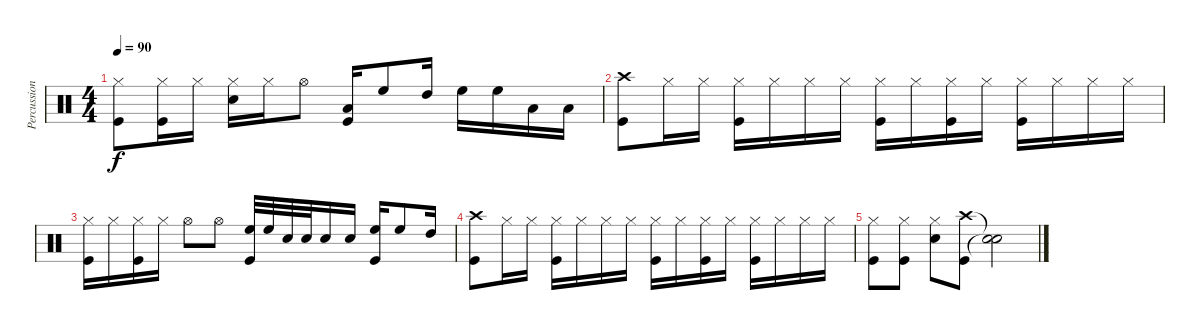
\track ("Percussion" "Percussion") {instrument percussion}
\staff {score}
\articulation defaults
\ts (4 4)
\tempo 90
\clef neutral
\ks c
("Hi-Hat (closed)" "Kick (hit)").8{dy f} ("Hi-Hat (closed)" "Kick (hit)").16 "Hi-Hat (closed)".16 ("Hi-Hat (closed)" "Snare (hit) 2").16 "Hi-Hat (closed)".16 "Hi-Hat (open)".8 ("Low Tom (hit)" "Kick (hit)").16 "High Floor Tom (hit)".8 "High Tom (hit)".16 "High Floor Tom (hit)".16 "High Floor Tom (hit)".16 "Low Tom (hit)".16 "Low Tom (hit)".16 |
("Crash high (hit)" "Kick (hit)").8 "Hi-Hat (closed)".16 "Hi-Hat (closed)".16 ("Hi-Hat (closed)" "Kick (hit)").16 "Hi-Hat (closed)".16 "Hi-Hat (closed)".16 "Hi-Hat (closed)".16 ("Hi-Hat (closed)" "Kick (hit)").16 "Hi-Hat (closed)".16 ("Hi-Hat (closed)" "Kick (hit)").16 "Hi-Hat (closed)".16 ("Hi-Hat (closed)" "Kick (hit)").16 "Hi-Hat (closed)".16 "Hi-Hat (closed)".16 "Hi-Hat (closed)".16 |
("Hi-Hat (closed)" "Kick (hit)").16 "Hi-Hat (closed)".16 ("Hi-Hat (closed)" "Kick (hit)").16 "Hi-Hat (closed)".16 "Hi-Hat (open)".8 "Hi-Hat (open)".8 ("High Floor Tom (hit)" "Kick (hit)").32 "High Floor Tom (hit)".32 "Snare (hit) 2".32 "Snare (hit) 2".32 "Snare (hit) 2".16 "Snare (hit) 2".16 ("High Floor Tom (hit)" "Kick (hit)").16 "High Floor Tom (hit)".8 "High Tom (hit)".16 |
("Crash high (hit)" "Kick (hit)").8 "Hi-Hat (closed)".16 "Hi-Hat (closed)".16 ("Hi-Hat (closed)" "Kick (hit)").16 "Hi-Hat (closed)".16 "Hi-Hat (closed)".16 "Hi-Hat (closed)".16 ("Hi-Hat (closed)" "Kick (hit)").16 "Hi-Hat (closed)".16 ("Hi-Hat (closed)" "Kick (hit)").16 "Hi-Hat (closed)".16 ("Hi-Hat (closed)" "Kick (hit)").16 "Hi-Hat (closed)".16 "Hi-Hat (closed)".16 "Hi-Hat (closed)".16 |
("Hi-Hat (closed)" "Kick (hit)").8 ("Hi-Hat (closed)" "Kick (hit)").8 ("Hi-Hat (closed)" "Snare (hit) 2").8 ("Crash high (hit)" "Kick (hit)").8 ("Snare (hit)"{t} "Snare (hit)"{t}).2
